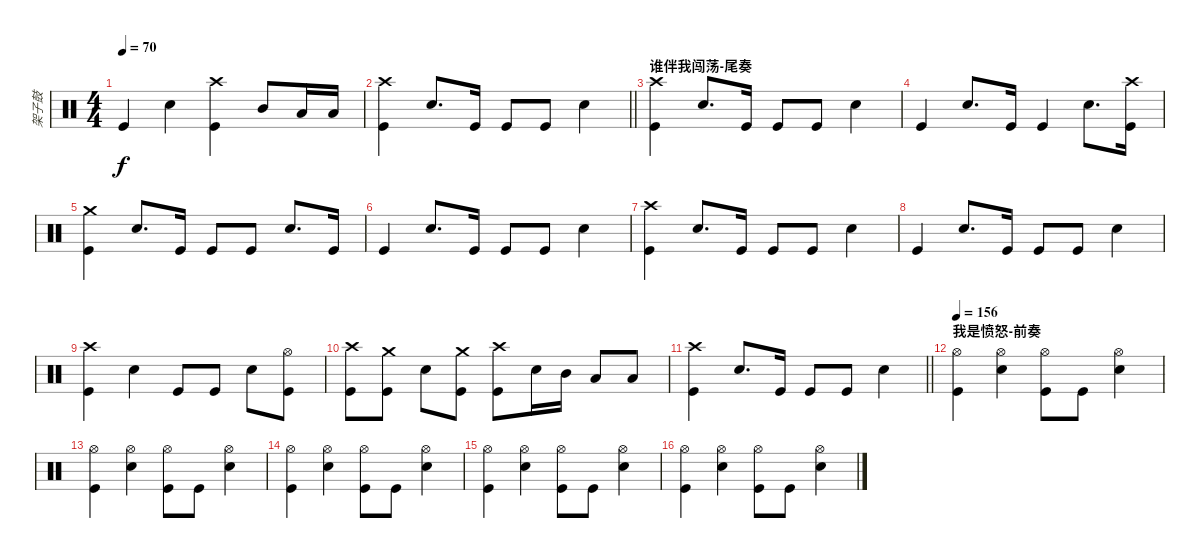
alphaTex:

\track ("架子鼓" "架子鼓") {instrument percussion}
\staff {score}
\articulation defaults
\ts (4 4)
\tempo 70
\clef neutral
\ks c "Kick (hit)".4{dy f} "Electric Snare (hit)".4
("Crash high (hit)" "Kick (hit)").4 "Mid Tom (hit)".8 "Low Tom (hit)".16 "Low Tom (hit)".16 |
\barLineRight lightlight
("Crash high (hit)" "Kick (hit)").4 "Electric Snare (hit)".8{d} "Kick (hit)".16 "Kick (hit)".8 "Kick (hit)".8 "Electric Snare (hit)".4 |
\section ("" "谁伴我闯荡-尾奏")
("Crash high (hit)" "Kick (hit)").4 "Electric Snare (hit)".8{d} "Kick (hit)".16 "Kick (hit)".8 "Kick (hit)".8 "Electric Snare (hit)".4 |
"Kick (hit)".4 "Electric Snare (hit)".8{d} "Kick (hit)".16 "Kick (hit)".4 "Electric Snare (hit)".8{d} ("Crash high (hit)" "Kick (hit)").16 |
("Crash medium (hit)" "Kick (hit)").4 "Electric Snare (hit)".8{d} "Kick (hit)".16 "Kick (hit)".8 "Kick (hit)".8 "Electric Snare (hit)".8{d} "Kick (hit)".16 |
"Kick (hit)".4 "Electric Snare (hit)".8{d} "Kick (hit)".16 "Kick (hit)".8 "Kick (hit)".8 "Electric Snare (hit)".4 |
("Crash high (hit)" "Kick (hit)").4 "Electric Snare (hit)".8{d} "Kick (hit)".16 "Kick (hit)".8 "Kick (hit)".8 "Electric Snare (hit)".4 |
"Kick (hit)".4 "Electric Snare (hit)".8{d} "Kick (hit)".16 "Kick (hit)".8 "Kick (hit)".8 "Electric Snare (hit)".4 |
("Crash high (hit)" "Kick (hit)").4 "Electric Snare (hit)".4 "Kick (hit)".8 "Kick (hit)".8 "Electric Snare (hit)".8 ("Hi-Hat (open)" "Kick (hit)").8 |
("Crash high (hit)" "Kick (hit)").8 ("Crash medium (hit)" "Kick (hit)").8 "Electric Snare (hit)".8 ("Crash medium (hit)" "Kick (hit)").8 ("Crash high (hit)" "Kick (hit)").8 "Electric Snare (hit)".16 "Mid Tom (hit)".16 "Low Tom (hit)".8 "Low Tom (hit)".8 |
\barLineRight lightlight
("Crash high (hit)" "Kick (hit)").4 "Electric Snare (hit)".8{d} "Kick (hit)".16 "Kick (hit)".8 "Kick (hit)".8 "Electric Snare (hit)".4 |
\section ("" "我是愤怒-前奏")
\tempo 156
("Hi-Hat (open)" "Kick (hit)").4 ("Hi-Hat (open)" "Electric Snare (hit)").4 ("Hi-Hat (open)" "Kick (hit)").8 "Kick (hit)".8 ("Hi-Hat (open)" "Electric Snare (hit)").4 |
("Hi-Hat (open)" "Kick (hit)").4 ("Hi-Hat (open)" "Electric Snare (hit)").4 ("Hi-Hat (open)" "Kick (hit)").8 "Kick (hit)".8 ("Hi-Hat (open)" "Electric Snare (hit)").4 |
("Hi-Hat (open)" "Kick (hit)").4 ("Hi-Hat (open)" "Electric Snare (hit)").4 ("Hi-Hat (open)" "Kick (hit)").8 "Kick (hit)".8 ("Hi-Hat (open)" "Electric Snare (hit)").4 |
("Hi-Hat (open)" "Kick (hit)").4 ("Hi-Hat (open)" "Electric Snare (hit)").4 ("Hi-Hat (open)" "Kick (hit)").8 "Kick (hit)".8 ("Hi-Hat (open)" "Electric Snare (hit)").4 |
("Hi-Hat (open)" "Kick (hit)").4 ("Hi-Hat (open)" "Electric Snare (hit)").4 ("Hi-Hat (open)" "Kick (hit)").8 "Kick (hit)".8 ("Hi-Hat (open)" "Electric Snare (hit)").4
